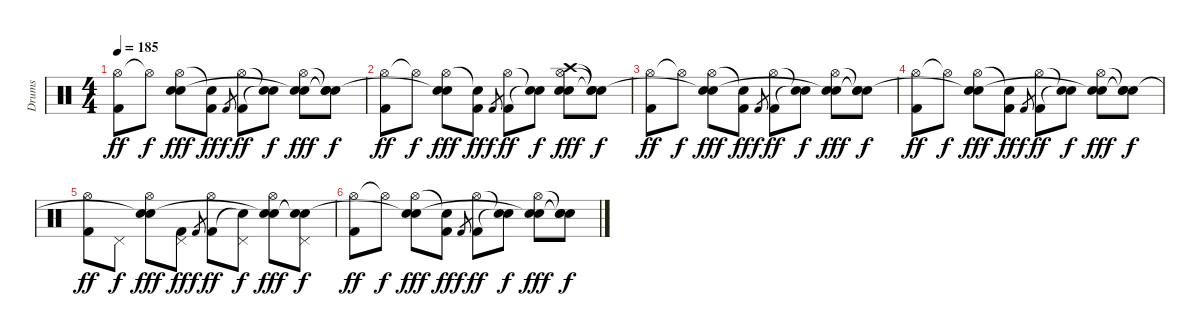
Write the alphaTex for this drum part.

\track ("Drums" "Drums") {instrument percussion}
\staff {score}
\articulation defaults
\ts (4 4)
\tempo 185
\clef neutral
\ks c
("Hi-Hat (open)" "Kick (hit) 2").8{dy ff} "Hi-Hat (open)"{t}.8{dy f} ("Hi-Hat (open)" "Electric Snare (hit)" "Snare (hit)"{t}).8{dy fff} ("Snare (hit)"{t} "Kick (hit) 2").8{dy ff} "Kick (hit) 2".8{gr dy f} ("Hi-Hat (open)" "Kick (hit) 2").8{dy ff} ("Snare (hit)"{t} "Snare (hit)"{t}).8{dy f} ("Hi-Hat (open)" "Electric Snare (hit)" "Snare (hit)"{t}).8{dy fff} ("Snare (hit)"{t} "Snare (hit)"{t} "Snare (hit)"{t}).8{dy f} |
("Hi-Hat (open)" "Kick (hit) 2").8{dy ff} "Hi-Hat (open)"{t}.8{dy f} ("Hi-Hat (open)" "Electric Snare (hit)" "Snare (hit)"{t}).8{dy fff} ("Snare (hit)"{t} "Kick (hit) 2").8{dy ff} "Kick (hit) 2".8{gr dy f} ("Hi-Hat (open)" "Kick (hit) 2").8{dy ff} ("Snare (hit)"{t} "Snare (hit)"{t}).8{dy f} ("Crash high (hit)" "Hi-Hat (open)" "Electric Snare (hit)" "Snare (hit)").8{dy fff} ("Snare (hit)"{t} "Snare (hit)"{t} "Snare (hit)"{t}).8{dy f} |
("Hi-Hat (open)" "Kick (hit) 2").8{dy ff} "Hi-Hat (open)"{t}.8{dy f} ("Hi-Hat (open)" "Electric Snare (hit)" "Snare (hit)"{t}).8{dy fff} ("Snare (hit)"{t} "Kick (hit) 2").8{dy ff} "Kick (hit) 2".8{gr dy f} ("Hi-Hat (open)" "Kick (hit) 2").8{dy ff} ("Snare (hit)"{t} "Snare (hit)"{t}).8{dy f} ("Hi-Hat (open)" "Electric Snare (hit)" "Snare (hit)"{t}).8{dy fff} ("Snare (hit)"{t} "Snare (hit)"{t} "Snare (hit)"{t}).8{dy f} |
("Hi-Hat (open)" "Kick (hit) 2").8{dy ff} "Hi-Hat (open)"{t}.8{dy f} ("Hi-Hat (open)" "Electric Snare (hit)" "Snare (hit)"{t}).8{dy fff} ("Snare (hit)"{t} "Kick (hit) 2").8{dy ff} "Kick (hit) 2".8{gr dy f} ("Hi-Hat (open)" "Kick (hit) 2").8{dy ff} ("Snare (hit)"{t} "Snare (hit)"{t}).8{dy f} ("Hi-Hat (open)" "Electric Snare (hit)" "Snare (hit)"{t}).8{dy fff} ("Snare (hit)"{t} "Snare (hit)"{t} "Snare (hit)"{t}).8{dy f} |
("Hi-Hat (open)" "Kick (hit) 2").8{dy ff} "Pedal Hi-Hat (hit)".8{dy f} ("Hi-Hat (open)" "Electric Snare (hit)" "Snare (hit)"{t}).8{dy fff} ("Pedal Hi-Hat (hit)" "Kick (hit) 2").8{dy ff} "Kick (hit) 2".8{gr dy f} ("Hi-Hat (open)" "Kick (hit) 2").8{dy ff} ("Pedal Hi-Hat (hit)" "Snare (hit)"{t}).8{dy f} ("Hi-Hat (open)" "Electric Snare (hit)" "Snare (hit)"{t}).8{dy fff} ("Pedal Hi-Hat (hit)" "Snare (hit)"{t} "Snare (hit)"{t}).8{dy f} |
("Hi-Hat (open)" "Kick (hit) 2").8{dy ff} "Hi-Hat (open)"{t}.8{dy f} ("Hi-Hat (open)" "Electric Snare (hit)" "Snare (hit)"{t}).8{dy fff} ("Snare (hit)"{t} "Kick (hit) 2").8{dy ff} "Kick (hit) 2".8{gr dy f} ("Hi-Hat (open)" "Kick (hit) 2").8{dy ff} ("Snare (hit)"{t} "Snare (hit)"{t}).8{dy f} ("Hi-Hat (open)" "Electric Snare (hit)" "Snare (hit)"{t}).8{dy fff} ("Snare (hit)"{t} "Snare (hit)"{t} "Snare (hit)"{t}).8{dy f}
